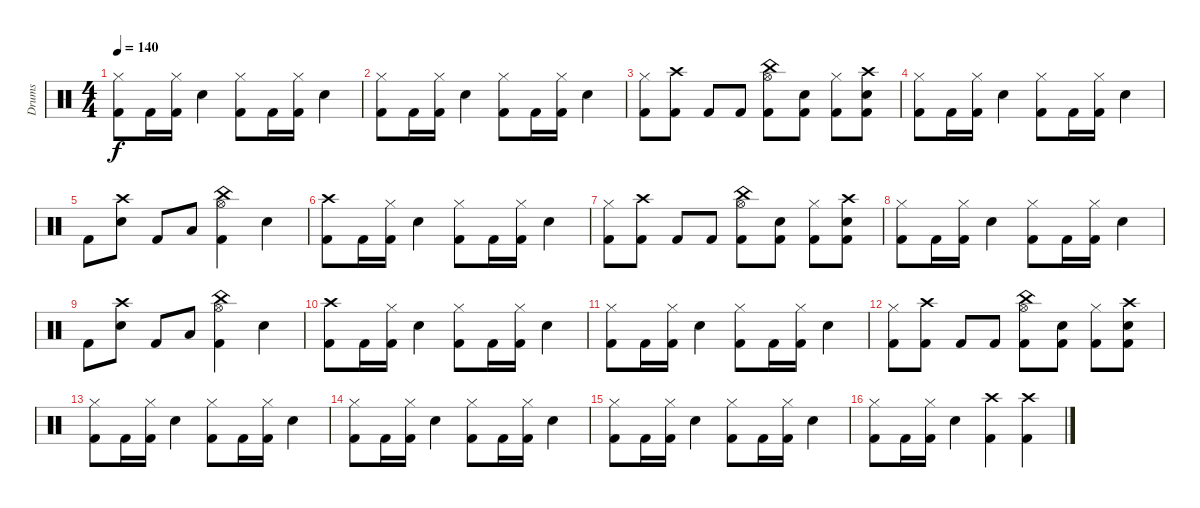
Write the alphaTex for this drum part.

\track ("Drums" "Drums") {instrument percussion}
\staff {score}
\articulation defaults
\ts (4 4)
\tempo 140
\clef neutral
\ks c
("Hi-Hat (closed)" "Kick (hit) 2").8{dy f} "Kick (hit) 2".16 ("Hi-Hat (closed)" "Kick (hit) 2").16 "Electric Snare (hit)".4 ("Hi-Hat (closed)" "Kick (hit) 2").8 "Kick (hit) 2".16 ("Hi-Hat (closed)" "Kick (hit) 2").16 "Electric Snare (hit)".4 |
("Hi-Hat (closed)" "Kick (hit) 2").8 "Kick (hit) 2".16 ("Hi-Hat (closed)" "Kick (hit) 2").16 "Electric Snare (hit)".4 ("Hi-Hat (closed)" "Kick (hit) 2").8 "Kick (hit) 2".16 ("Hi-Hat (closed)" "Kick (hit) 2").16 "Electric Snare (hit)".4 |
("Hi-Hat (closed)" "Kick (hit) 2").8 ("Crash high (hit)" "Kick (hit) 2").8 "Kick (hit) 2".8 "Kick (hit) 2".8 ("China (hit)" "Hi-Hat (open)" "Kick (hit) 2").8 ("Electric Snare (hit)" "Kick (hit) 2").8 ("Hi-Hat (closed)" "Kick (hit) 2").8 ("Crash high (hit)" "Electric Snare (hit)" "Kick (hit) 2").8 |
("Hi-Hat (closed)" "Kick (hit) 2").8 "Kick (hit) 2".16 ("Hi-Hat (closed)" "Kick (hit) 2").16 "Electric Snare (hit)".4 ("Hi-Hat (closed)" "Kick (hit) 2").8 "Kick (hit) 2".16 ("Hi-Hat (closed)" "Kick (hit) 2").16 "Electric Snare (hit)".4 |
"Kick (hit) 2".8 ("Crash high (hit)" "Electric Snare (hit)").8 "Kick (hit) 2".8 "Low Floor Tom (hit)".8 ("China (hit)" "Hi-Hat (open)" "Kick (hit) 2").4 "Electric Snare (hit)".4 |
("Crash high (hit)" "Kick (hit) 2").8 "Kick (hit) 2".16 ("Hi-Hat (closed)" "Kick (hit) 2").16 "Electric Snare (hit)".4 ("Hi-Hat (closed)" "Kick (hit) 2").8 "Kick (hit) 2".16 ("Hi-Hat (closed)" "Kick (hit) 2").16 "Electric Snare (hit)".4 |
("Hi-Hat (closed)" "Kick (hit) 2").8 ("Crash high (hit)" "Kick (hit) 2").8 "Kick (hit) 2".8 "Kick (hit) 2".8 ("China (hit)" "Hi-Hat (open)" "Kick (hit) 2").8 ("Electric Snare (hit)" "Kick (hit) 2").8 ("Hi-Hat (closed)" "Kick (hit) 2").8 ("Crash high (hit)" "Electric Snare (hit)" "Kick (hit) 2").8 |
("Hi-Hat (closed)" "Kick (hit) 2").8 "Kick (hit) 2".16 ("Hi-Hat (closed)" "Kick (hit) 2").16 "Electric Snare (hit)".4 ("Hi-Hat (closed)" "Kick (hit) 2").8 "Kick (hit) 2".16 ("Hi-Hat (closed)" "Kick (hit) 2").16 "Electric Snare (hit)".4 |
"Kick (hit) 2".8 ("Crash high (hit)" "Electric Snare (hit)").8 "Kick (hit) 2".8 "Low Floor Tom (hit)".8 ("China (hit)" "Hi-Hat (open)" "Kick (hit) 2").4 "Electric Snare (hit)".4 |
("Crash high (hit)" "Kick (hit) 2").8 "Kick (hit) 2".16 ("Hi-Hat (closed)" "Kick (hit) 2").16 "Electric Snare (hit)".4 ("Hi-Hat (closed)" "Kick (hit) 2").8 "Kick (hit) 2".16 ("Hi-Hat (closed)" "Kick (hit) 2").16 "Electric Snare (hit)".4 |
("Hi-Hat (closed)" "Kick (hit) 2").8 "Kick (hit) 2".16 ("Hi-Hat (closed)" "Kick (hit) 2").16 "Electric Snare (hit)".4 ("Hi-Hat (closed)" "Kick (hit) 2").8 "Kick (hit) 2".16 ("Hi-Hat (closed)" "Kick (hit) 2").16 "Electric Snare (hit)".4 |
("Hi-Hat (closed)" "Kick (hit) 2").8 ("Crash high (hit)" "Kick (hit) 2").8 "Kick (hit) 2".8 "Kick (hit) 2".8 ("China (hit)" "Hi-Hat (open)" "Kick (hit) 2").8 ("Electric Snare (hit)" "Kick (hit) 2").8 ("Hi-Hat (closed)" "Kick (hit) 2").8 ("Crash high (hit)" "Electric Snare (hit)" "Kick (hit) 2").8 |
("Hi-Hat (closed)" "Kick (hit) 2").8 "Kick (hit) 2".16 ("Hi-Hat (closed)" "Kick (hit) 2").16 "Electric Snare (hit)".4 ("Hi-Hat (closed)" "Kick (hit) 2").8 "Kick (hit) 2".16 ("Hi-Hat (closed)" "Kick (hit) 2").16 "Electric Snare (hit)".4 |
("Hi-Hat (closed)" "Kick (hit) 2").8 "Kick (hit) 2".16 ("Hi-Hat (closed)" "Kick (hit) 2").16 "Electric Snare (hit)".4 ("Hi-Hat (closed)" "Kick (hit) 2").8 "Kick (hit) 2".16 ("Hi-Hat (closed)" "Kick (hit) 2").16 "Electric Snare (hit)".4 |
("Hi-Hat (closed)" "Kick (hit) 2").8 "Kick (hit) 2".16 ("Hi-Hat (closed)" "Kick (hit) 2").16 "Electric Snare (hit)".4 ("Hi-Hat (closed)" "Kick (hit) 2").8 "Kick (hit) 2".16 ("Hi-Hat (closed)" "Kick (hit) 2").16 "Electric Snare (hit)".4 |
("Hi-Hat (closed)" "Kick (hit) 2").8 "Kick (hit) 2".16 ("Hi-Hat (closed)" "Kick (hit) 2").16 "Electric Snare (hit)".4 ("Crash high (hit)" "Kick (hit) 2").4 ("Crash high (hit)" "Kick (hit) 2").4
